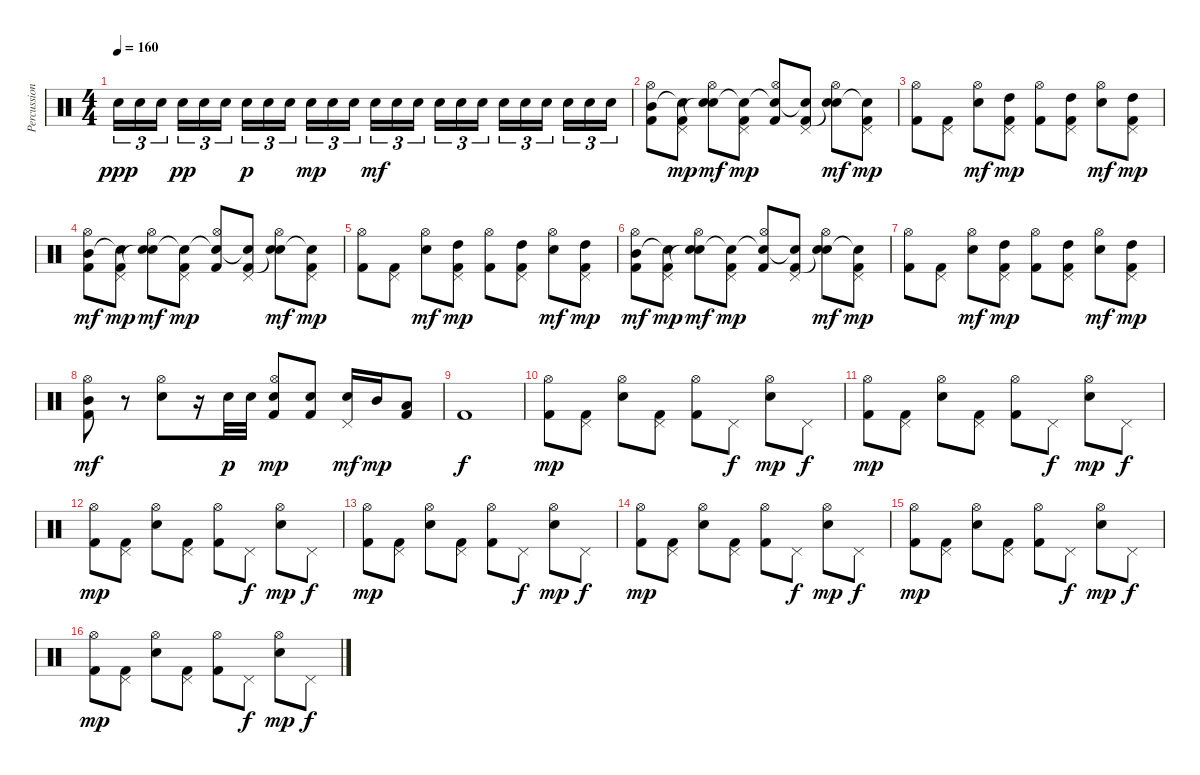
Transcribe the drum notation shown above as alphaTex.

\track ("Percussions" "Percussion") {instrument percussion}
\staff {score}
\articulation defaults
\ts (4 4)
\tempo 160
\clef neutral
\ks c "Snare (hit) 2".16{tu (3 2) dy ppp} "Snare (hit) 2".16{tu (3 2)} "Snare (hit) 2".16{tu (3 2)} "Snare (hit) 2".16{tu (3 2) dy pp} "Snare (hit) 2".16{tu (3 2)} "Snare (hit) 2".16{tu (3 2)} "Snare (hit) 2".16{tu (3 2) dy p} "Snare (hit) 2".16{tu (3 2)} "Snare (hit) 2".16{tu (3 2)} "Snare (hit) 2".16{tu (3 2) dy mp} "Snare (hit) 2".16{tu (3 2)} "Snare (hit) 2".16{tu (3 2)} "Snare (hit) 2".16{tu (3 2) dy mf} "Snare (hit) 2".16{tu (3 2)} "Snare (hit) 2".16{tu (3 2)} "Snare (hit) 2".16{tu (3 2)} "Snare (hit) 2".16{tu (3 2)} "Snare (hit) 2".16{tu (3 2)} "Snare (hit) 2".16{tu (3 2)} "Snare (hit) 2".16{tu (3 2)} "Snare (hit) 2".16{tu (3 2)} "Snare (hit) 2".16{tu (3 2)} "Snare (hit) 2".16{tu (3 2)} "Snare (hit) 2".16{tu (3 2)}
|
("Hi-Hat (open)" "Mid Tom (hit)" "Kick (hit) 2").8 ("Pedal Hi-Hat (hit)" "Snare (hit)"{t} "Kick (hit) 2").8{dy mp} ("Hi-Hat (open)" "Snare (hit) 2" "Snare (hit)"{t}).8{dy mf} ("Pedal Hi-Hat (hit)" "Snare (hit)"{t} "Kick (hit) 2").8{dy mp} ("Hi-Hat (open)" "Snare (hit)"{t} "Kick (hit) 2").8 ("Pedal Hi-Hat (hit)" "Snare (hit)"{t} "Kick (hit) 2").8 ("Hi-Hat (open)" "Snare (hit) 2" "Snare (hit)"{t}).8{dy mf} ("Pedal Hi-Hat (hit)" "Snare (hit)"{t} "Kick (hit) 2").8{dy mp} |
("Hi-Hat (open)" "Kick (hit) 2").8 ("Pedal Hi-Hat (hit)" "Kick (hit) 2").8 ("Hi-Hat (open)" "Snare (hit) 2").8{dy mf} ("Pedal Hi-Hat (hit)" "High Tom (hit)" "Kick (hit) 2").8{dy mp} ("Hi-Hat (open)" "Kick (hit) 2").8 ("Pedal Hi-Hat (hit)" "High Tom (hit)" "Kick (hit) 2").8 ("Hi-Hat (open)" "Snare (hit) 2").8{dy mf} ("Pedal Hi-Hat (hit)" "High Tom (hit)" "Kick (hit) 2").8{dy mp} |
("Hi-Hat (open)" "Mid Tom (hit)" "Kick (hit) 2").8{dy mf} ("Pedal Hi-Hat (hit)" "Snare (hit)"{t} "Kick (hit) 2").8{dy mp} ("Hi-Hat (open)" "Snare (hit) 2" "Snare (hit)"{t}).8{dy mf} ("Pedal Hi-Hat (hit)" "Snare (hit)"{t} "Kick (hit) 2").8{dy mp} ("Hi-Hat (open)" "Snare (hit)"{t} "Kick (hit) 2").8 ("Pedal Hi-Hat (hit)" "Snare (hit)"{t} "Kick (hit) 2").8 ("Hi-Hat (open)" "Snare (hit) 2" "Snare (hit)"{t}).8{dy mf} ("Pedal Hi-Hat (hit)" "Snare (hit)"{t} "Kick (hit) 2").8{dy mp} |
("Hi-Hat (open)" "Kick (hit) 2").8 ("Pedal Hi-Hat (hit)" "Kick (hit) 2").8 ("Hi-Hat (open)" "Snare (hit) 2").8{dy mf} ("Pedal Hi-Hat (hit)" "High Tom (hit)" "Kick (hit) 2").8{dy mp} ("Hi-Hat (open)" "Kick (hit) 2").8 ("Pedal Hi-Hat (hit)" "High Tom (hit)" "Kick (hit) 2").8 ("Hi-Hat (open)" "Snare (hit) 2").8{dy mf} ("Pedal Hi-Hat (hit)" "High Tom (hit)" "Kick (hit) 2").8{dy mp} |
("Hi-Hat (open)" "Mid Tom (hit)" "Kick (hit) 2").8{dy mf} ("Pedal Hi-Hat (hit)" "Snare (hit)"{t} "Kick (hit) 2").8{dy mp} ("Hi-Hat (open)" "Snare (hit) 2" "Snare (hit)"{t}).8{dy mf} ("Pedal Hi-Hat (hit)" "Snare (hit)"{t} "Kick (hit) 2").8{dy mp} ("Hi-Hat (open)" "Snare (hit)"{t} "Kick (hit) 2").8 ("Pedal Hi-Hat (hit)" "Snare (hit)"{t} "Kick (hit) 2").8 ("Hi-Hat (open)" "Snare (hit) 2" "Snare (hit)"{t}).8{dy mf} ("Pedal Hi-Hat (hit)" "Snare (hit)"{t} "Kick (hit) 2").8{dy mp} |
("Hi-Hat (open)" "Kick (hit) 2").8 ("Pedal Hi-Hat (hit)" "Kick (hit) 2").8 ("Hi-Hat (open)" "Snare (hit) 2").8{dy mf} ("Pedal Hi-Hat (hit)" "High Tom (hit)" "Kick (hit) 2").8{dy mp} ("Hi-Hat (open)" "Kick (hit) 2").8 ("Pedal Hi-Hat (hit)" "High Tom (hit)" "Kick (hit) 2").8 ("Hi-Hat (open)" "Snare (hit) 2").8{dy mf} ("Pedal Hi-Hat (hit)" "High Tom (hit)" "Kick (hit) 2").8{dy mp} |
("Hi-Hat (open)" "Mid Tom (hit)" "Kick (hit) 2").8{dy mf} r.8 ("Hi-Hat (open)" "Snare (hit) 2").8 r.16 "Snare (hit) 2".32{dy p} "Snare (hit) 2".32 ("Hi-Hat (open)" "Snare (hit) 2" "Kick (hit) 2").8{dy mp} ("Electric Snare (hit)" "Kick (hit) 2").8 ("Pedal Hi-Hat (hit)" "Snare (hit) 2").16{dy mf} "Mid Tom (hit)".16{dy mp} ("Low Tom (hit)" "Kick (hit) 2").8 |
"Kick (hit) 2".1{dy f} |
("Hi-Hat (open)" "Kick (hit) 2").8{dy mp} ("Pedal Hi-Hat (hit)" "Kick (hit) 2").8 ("Hi-Hat (open)" "Snare (hit) 2").8 ("Pedal Hi-Hat (hit)" "Kick (hit) 2").8 ("Hi-Hat (open)" "Kick (hit) 2").8 "Pedal Hi-Hat (hit)".8{dy f} ("Hi-Hat (open)" "Snare (hit) 2").8{dy mp} "Pedal Hi-Hat (hit)".8{dy f} |
("Hi-Hat (open)" "Kick (hit) 2").8{dy mp} ("Pedal Hi-Hat (hit)" "Kick (hit) 2").8 ("Hi-Hat (open)" "Snare (hit) 2").8 ("Pedal Hi-Hat (hit)" "Kick (hit) 2").8 ("Hi-Hat (open)" "Kick (hit) 2").8 "Pedal Hi-Hat (hit)".8{dy f} ("Hi-Hat (open)" "Snare (hit) 2").8{dy mp} "Pedal Hi-Hat (hit)".8{dy f} |
("Hi-Hat (open)" "Kick (hit) 2").8{dy mp} ("Pedal Hi-Hat (hit)" "Kick (hit) 2").8 ("Hi-Hat (open)" "Snare (hit) 2").8 ("Pedal Hi-Hat (hit)" "Kick (hit) 2").8 ("Hi-Hat (open)" "Kick (hit) 2").8 "Pedal Hi-Hat (hit)".8{dy f} ("Hi-Hat (open)" "Snare (hit) 2").8{dy mp} "Pedal Hi-Hat (hit)".8{dy f} |
("Hi-Hat (open)" "Kick (hit) 2").8{dy mp} ("Pedal Hi-Hat (hit)" "Kick (hit) 2").8 ("Hi-Hat (open)" "Snare (hit) 2").8 ("Pedal Hi-Hat (hit)" "Kick (hit) 2").8 ("Hi-Hat (open)" "Kick (hit) 2").8 "Pedal Hi-Hat (hit)".8{dy f} ("Hi-Hat (open)" "Snare (hit) 2").8{dy mp} "Pedal Hi-Hat (hit)".8{dy f} |
("Hi-Hat (open)" "Kick (hit) 2").8{dy mp} ("Pedal Hi-Hat (hit)" "Kick (hit) 2").8 ("Hi-Hat (open)" "Snare (hit) 2").8 ("Pedal Hi-Hat (hit)" "Kick (hit) 2").8 ("Hi-Hat (open)" "Kick (hit) 2").8 "Pedal Hi-Hat (hit)".8{dy f} ("Hi-Hat (open)" "Snare (hit) 2").8{dy mp} "Pedal Hi-Hat (hit)".8{dy f} |
("Hi-Hat (open)" "Kick (hit) 2").8{dy mp} ("Pedal Hi-Hat (hit)" "Kick (hit) 2").8 ("Hi-Hat (open)" "Snare (hit) 2").8 ("Pedal Hi-Hat (hit)" "Kick (hit) 2").8 ("Hi-Hat (open)" "Kick (hit) 2").8 "Pedal Hi-Hat (hit)".8{dy f} ("Hi-Hat (open)" "Snare (hit) 2").8{dy mp} "Pedal Hi-Hat (hit)".8{dy f} |
("Hi-Hat (open)" "Kick (hit) 2").8{dy mp} ("Pedal Hi-Hat (hit)" "Kick (hit) 2").8 ("Hi-Hat (open)" "Snare (hit) 2").8 ("Pedal Hi-Hat (hit)" "Kick (hit) 2").8 ("Hi-Hat (open)" "Kick (hit) 2").8 "Pedal Hi-Hat (hit)".8{dy f} ("Hi-Hat (open)" "Snare (hit) 2").8{dy mp} "Pedal Hi-Hat (hit)".8{dy f}
